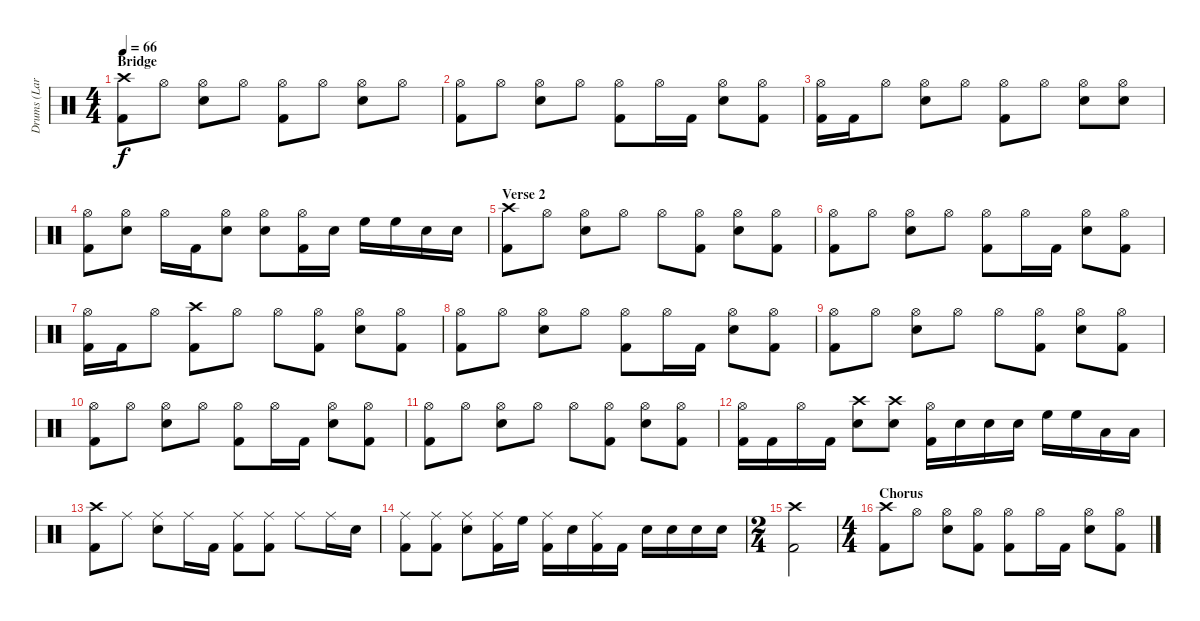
\track ("Drums (Lars)" "Drums (Lar") {instrument percussion}
\staff {score}
\articulation defaults
\ts (4 4)
\section ("" "Bridge")
\tempo 66
\clef neutral
\ks c
("Crash high (hit)" "Kick (hit) 2").8{dy f} "Hi-Hat (open)".8 ("Hi-Hat (open)" "Snare (hit) 2").8 "Hi-Hat (open)".8 ("Hi-Hat (open)" "Kick (hit) 2").8 "Hi-Hat (open)".8 ("Hi-Hat (open)" "Snare (hit) 2").8 "Hi-Hat (open)".8 |
("Hi-Hat (open)" "Kick (hit) 2").8 "Hi-Hat (open)".8 ("Hi-Hat (open)" "Snare (hit) 2").8 "Hi-Hat (open)".8 ("Hi-Hat (open)" "Kick (hit) 2").8 "Hi-Hat (open)".16 "Kick (hit) 2".16 ("Hi-Hat (open)" "Snare (hit) 2").8 ("Hi-Hat (open)" "Kick (hit) 2").8 |
("Hi-Hat (open)" "Kick (hit) 2").16 "Kick (hit) 2".16 "Hi-Hat (open)".8 ("Hi-Hat (open)" "Snare (hit) 2").8 "Hi-Hat (open)".8 ("Hi-Hat (open)" "Kick (hit) 2").8 "Hi-Hat (open)".8 ("Hi-Hat (open)" "Snare (hit) 2").8 ("Hi-Hat (open)" "Snare (hit) 2").8 |
("Hi-Hat (open)" "Kick (hit) 2").8 ("Hi-Hat (open)" "Snare (hit) 2").8 "Hi-Hat (open)".16 "Kick (hit) 2".16 ("Hi-Hat (open)" "Snare (hit) 2").8 ("Hi-Hat (open)" "Snare (hit) 2").8 ("Hi-Hat (open)" "Kick (hit) 2").16 "Snare (hit) 2".16 "High Floor Tom (hit)".16 "High Floor Tom (hit)".16 "Snare (hit) 2".16 "Snare (hit) 2".16 |
\section ("" "Verse 2")
("Crash high (hit)" "Kick (hit) 2").8 "Hi-Hat (open)".8 ("Hi-Hat (open)" "Snare (hit) 2").8 "Hi-Hat (open)".8 "Hi-Hat (open)".8 ("Hi-Hat (open)" "Kick (hit) 2").8 ("Hi-Hat (open)" "Snare (hit) 2").8 ("Hi-Hat (open)" "Kick (hit) 2").8 |
("Hi-Hat (open)" "Kick (hit) 2").8 "Hi-Hat (open)".8 ("Hi-Hat (open)" "Snare (hit) 2").8 "Hi-Hat (open)".8 ("Hi-Hat (open)" "Kick (hit) 2").8 "Hi-Hat (open)".16 "Kick (hit) 2".16 ("Hi-Hat (open)" "Snare (hit) 2").8 ("Hi-Hat (open)" "Kick (hit) 2").8 |
("Hi-Hat (open)" "Kick (hit) 2").16 "Kick (hit) 2".16 "Hi-Hat (open)".8 ("Crash high (hit)" "Kick (hit) 2").8 "Hi-Hat (open)".8 "Hi-Hat (open)".8 ("Hi-Hat (open)" "Kick (hit) 2").8 ("Hi-Hat (open)" "Snare (hit) 2").8 ("Hi-Hat (open)" "Kick (hit) 2").8 |
("Hi-Hat (open)" "Kick (hit) 2").8 "Hi-Hat (open)".8 ("Hi-Hat (open)" "Snare (hit) 2").8 "Hi-Hat (open)".8 ("Hi-Hat (open)" "Kick (hit) 2").8 "Hi-Hat (open)".16 "Kick (hit) 2".16 ("Hi-Hat (open)" "Snare (hit) 2").8 ("Hi-Hat (open)" "Kick (hit) 2").8 |
("Hi-Hat (open)" "Kick (hit) 2").8 "Hi-Hat (open)".8 ("Hi-Hat (open)" "Snare (hit) 2").8 "Hi-Hat (open)".8 "Hi-Hat (open)".8 ("Hi-Hat (open)" "Kick (hit) 2").8 ("Hi-Hat (open)" "Snare (hit) 2").8 ("Hi-Hat (open)" "Kick (hit) 2").8 |
("Hi-Hat (open)" "Kick (hit) 2").8 "Hi-Hat (open)".8 ("Hi-Hat (open)" "Snare (hit) 2").8 "Hi-Hat (open)".8 ("Hi-Hat (open)" "Kick (hit) 2").8 "Hi-Hat (open)".16 "Kick (hit) 2".16 ("Hi-Hat (open)" "Snare (hit) 2").8 ("Hi-Hat (open)" "Kick (hit) 2").8 |
("Hi-Hat (open)" "Kick (hit) 2").8 "Hi-Hat (open)".8 ("Hi-Hat (open)" "Snare (hit) 2").8 "Hi-Hat (open)".8 "Hi-Hat (open)".8 ("Hi-Hat (open)" "Kick (hit) 2").8 ("Hi-Hat (open)" "Snare (hit) 2").8 ("Hi-Hat (open)" "Kick (hit) 2").8 |
("Hi-Hat (open)" "Kick (hit) 2").16 "Kick (hit) 2".16 "Hi-Hat (open)".16 "Kick (hit) 2".16 ("Crash high (hit)" "Snare (hit) 2").8 ("Crash high (hit)" "Snare (hit) 2").8 ("Hi-Hat (open)" "Kick (hit) 2").16 "Snare (hit) 2".16 "Snare (hit) 2".16 "Snare (hit) 2".16 "High Floor Tom (hit)".16 "High Floor Tom (hit)".16 "Low Tom (hit)".16 "Low Tom (hit)".16 |
("Crash high (hit)" "Kick (hit) 2").8 "Ride (middle)".8 ("Ride (middle)" "Snare (hit) 2").8 "Ride (middle)".16 "Kick (hit) 2".16 ("Ride (middle)" "Kick (hit) 2").8 ("Ride (middle)" "Kick (hit) 2").8 "Ride (middle)".8 "Ride (middle)".16 "Snare (hit) 2".16 |
("Ride (middle)" "Kick (hit) 2").8 ("Ride (middle)" "Kick (hit) 2").8 ("Ride (middle)" "Snare (hit) 2").8 ("Ride (middle)" "Kick (hit) 2").16 "High Floor Tom (hit)".16 ("Ride (middle)" "Kick (hit) 2").16 "Snare (hit) 2".16 ("Ride (middle)" "Kick (hit) 2").16 "Kick (hit) 2".16 "Snare (hit) 2".16 "Snare (hit) 2".16 "Snare (hit) 2".16 "Snare (hit) 2".16 |
\ts (2 4)
("Crash high (hit)" "Kick (hit) 2").2 |
\ts (4 4)
\section ("" "Chorus")
("Crash high (hit)" "Kick (hit) 2").8 "Hi-Hat (open)".8 ("Hi-Hat (open)" "Snare (hit) 2").8 ("Hi-Hat (open)" "Kick (hit) 2").8 ("Hi-Hat (open)" "Kick (hit) 2").8 "Hi-Hat (open)".16 "Kick (hit) 2".16 ("Hi-Hat (open)" "Snare (hit) 2").8 ("Hi-Hat (open)" "Kick (hit) 2").8
